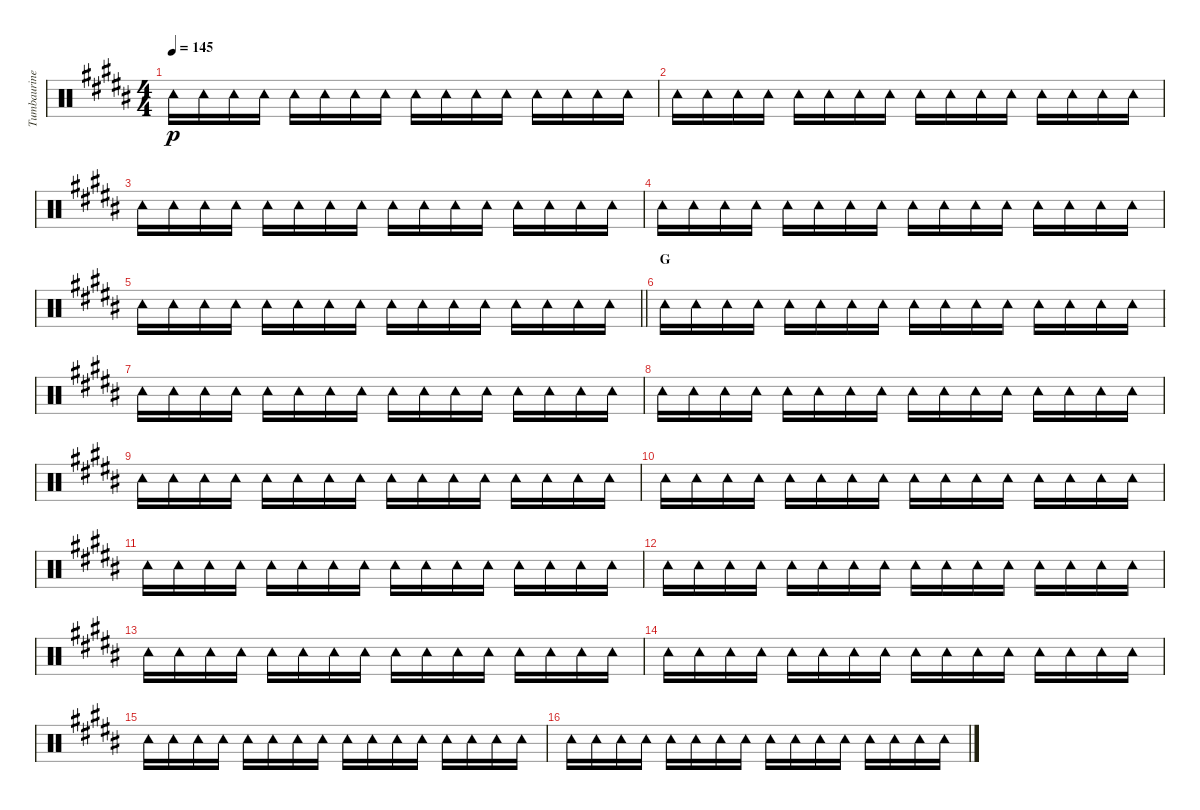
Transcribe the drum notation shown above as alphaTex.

\track ("Tumbaurine" "Tumbaurine") {instrument percussion}
\staff {score}
\articulation defaults
\ts (4 4)
\tempo 145
\clef neutral
\ks b "Tambourine (hit)".16{dy p} "Tambourine (hit)".16 "Tambourine (hit)".16 "Tambourine (hit)".16 "Tambourine (hit)".16 "Tambourine (hit)".16 "Tambourine (hit)".16 "Tambourine (hit)".16 "Tambourine (hit)".16 "Tambourine (hit)".16 "Tambourine (hit)".16 "Tambourine (hit)".16 "Tambourine (hit)".16 "Tambourine (hit)".16 "Tambourine (hit)".16 "Tambourine (hit)".16
|
"Tambourine (hit)".16 "Tambourine (hit)".16 "Tambourine (hit)".16 "Tambourine (hit)".16 "Tambourine (hit)".16 "Tambourine (hit)".16 "Tambourine (hit)".16 "Tambourine (hit)".16 "Tambourine (hit)".16 "Tambourine (hit)".16 "Tambourine (hit)".16 "Tambourine (hit)".16 "Tambourine (hit)".16 "Tambourine (hit)".16 "Tambourine (hit)".16 "Tambourine (hit)".16 |
"Tambourine (hit)".16 "Tambourine (hit)".16 "Tambourine (hit)".16 "Tambourine (hit)".16 "Tambourine (hit)".16 "Tambourine (hit)".16 "Tambourine (hit)".16 "Tambourine (hit)".16 "Tambourine (hit)".16 "Tambourine (hit)".16 "Tambourine (hit)".16 "Tambourine (hit)".16 "Tambourine (hit)".16 "Tambourine (hit)".16 "Tambourine (hit)".16 "Tambourine (hit)".16 |
"Tambourine (hit)".16 "Tambourine (hit)".16 "Tambourine (hit)".16 "Tambourine (hit)".16 "Tambourine (hit)".16 "Tambourine (hit)".16 "Tambourine (hit)".16 "Tambourine (hit)".16 "Tambourine (hit)".16 "Tambourine (hit)".16 "Tambourine (hit)".16 "Tambourine (hit)".16 "Tambourine (hit)".16 "Tambourine (hit)".16 "Tambourine (hit)".16 "Tambourine (hit)".16 |
\barLineRight lightlight "Tambourine (hit)".16 "Tambourine (hit)".16 "Tambourine (hit)".16 "Tambourine (hit)".16 "Tambourine (hit)".16 "Tambourine (hit)".16 "Tambourine (hit)".16 "Tambourine (hit)".16 "Tambourine (hit)".16 "Tambourine (hit)".16 "Tambourine (hit)".16 "Tambourine (hit)".16 "Tambourine (hit)".16 "Tambourine (hit)".16 "Tambourine (hit)".16 "Tambourine (hit)".16
|
\section ("" "G")
"Tambourine (hit)".16 "Tambourine (hit)".16 "Tambourine (hit)".16 "Tambourine (hit)".16 "Tambourine (hit)".16 "Tambourine (hit)".16 "Tambourine (hit)".16 "Tambourine (hit)".16 "Tambourine (hit)".16 "Tambourine (hit)".16 "Tambourine (hit)".16 "Tambourine (hit)".16 "Tambourine (hit)".16 "Tambourine (hit)".16 "Tambourine (hit)".16 "Tambourine (hit)".16 |
"Tambourine (hit)".16 "Tambourine (hit)".16 "Tambourine (hit)".16 "Tambourine (hit)".16 "Tambourine (hit)".16 "Tambourine (hit)".16 "Tambourine (hit)".16 "Tambourine (hit)".16 "Tambourine (hit)".16 "Tambourine (hit)".16 "Tambourine (hit)".16 "Tambourine (hit)".16 "Tambourine (hit)".16 "Tambourine (hit)".16 "Tambourine (hit)".16 "Tambourine (hit)".16 |
"Tambourine (hit)".16 "Tambourine (hit)".16 "Tambourine (hit)".16 "Tambourine (hit)".16 "Tambourine (hit)".16 "Tambourine (hit)".16 "Tambourine (hit)".16 "Tambourine (hit)".16 "Tambourine (hit)".16 "Tambourine (hit)".16 "Tambourine (hit)".16 "Tambourine (hit)".16 "Tambourine (hit)".16 "Tambourine (hit)".16 "Tambourine (hit)".16 "Tambourine (hit)".16 |
"Tambourine (hit)".16 "Tambourine (hit)".16 "Tambourine (hit)".16 "Tambourine (hit)".16 "Tambourine (hit)".16 "Tambourine (hit)".16 "Tambourine (hit)".16 "Tambourine (hit)".16 "Tambourine (hit)".16 "Tambourine (hit)".16 "Tambourine (hit)".16 "Tambourine (hit)".16 "Tambourine (hit)".16 "Tambourine (hit)".16 "Tambourine (hit)".16 "Tambourine (hit)".16 |
"Tambourine (hit)".16 "Tambourine (hit)".16 "Tambourine (hit)".16 "Tambourine (hit)".16 "Tambourine (hit)".16 "Tambourine (hit)".16 "Tambourine (hit)".16 "Tambourine (hit)".16 "Tambourine (hit)".16 "Tambourine (hit)".16 "Tambourine (hit)".16 "Tambourine (hit)".16 "Tambourine (hit)".16 "Tambourine (hit)".16 "Tambourine (hit)".16 "Tambourine (hit)".16 |
"Tambourine (hit)".16 "Tambourine (hit)".16 "Tambourine (hit)".16 "Tambourine (hit)".16 "Tambourine (hit)".16 "Tambourine (hit)".16 "Tambourine (hit)".16 "Tambourine (hit)".16 "Tambourine (hit)".16 "Tambourine (hit)".16 "Tambourine (hit)".16 "Tambourine (hit)".16 "Tambourine (hit)".16 "Tambourine (hit)".16 "Tambourine (hit)".16 "Tambourine (hit)".16 |
"Tambourine (hit)".16 "Tambourine (hit)".16 "Tambourine (hit)".16 "Tambourine (hit)".16 "Tambourine (hit)".16 "Tambourine (hit)".16 "Tambourine (hit)".16 "Tambourine (hit)".16 "Tambourine (hit)".16 "Tambourine (hit)".16 "Tambourine (hit)".16 "Tambourine (hit)".16 "Tambourine (hit)".16 "Tambourine (hit)".16 "Tambourine (hit)".16 "Tambourine (hit)".16 |
"Tambourine (hit)".16 "Tambourine (hit)".16 "Tambourine (hit)".16 "Tambourine (hit)".16 "Tambourine (hit)".16 "Tambourine (hit)".16 "Tambourine (hit)".16 "Tambourine (hit)".16 "Tambourine (hit)".16 "Tambourine (hit)".16 "Tambourine (hit)".16 "Tambourine (hit)".16 "Tambourine (hit)".16 "Tambourine (hit)".16 "Tambourine (hit)".16 "Tambourine (hit)".16 |
"Tambourine (hit)".16 "Tambourine (hit)".16 "Tambourine (hit)".16 "Tambourine (hit)".16 "Tambourine (hit)".16 "Tambourine (hit)".16 "Tambourine (hit)".16 "Tambourine (hit)".16 "Tambourine (hit)".16 "Tambourine (hit)".16 "Tambourine (hit)".16 "Tambourine (hit)".16 "Tambourine (hit)".16 "Tambourine (hit)".16 "Tambourine (hit)".16 "Tambourine (hit)".16 |
"Tambourine (hit)".16 "Tambourine (hit)".16 "Tambourine (hit)".16 "Tambourine (hit)".16 "Tambourine (hit)".16 "Tambourine (hit)".16 "Tambourine (hit)".16 "Tambourine (hit)".16 "Tambourine (hit)".16 "Tambourine (hit)".16 "Tambourine (hit)".16 "Tambourine (hit)".16 "Tambourine (hit)".16 "Tambourine (hit)".16 "Tambourine (hit)".16 "Tambourine (hit)".16 |
"Tambourine (hit)".16 "Tambourine (hit)".16 "Tambourine (hit)".16 "Tambourine (hit)".16 "Tambourine (hit)".16 "Tambourine (hit)".16 "Tambourine (hit)".16 "Tambourine (hit)".16 "Tambourine (hit)".16 "Tambourine (hit)".16 "Tambourine (hit)".16 "Tambourine (hit)".16 "Tambourine (hit)".16 "Tambourine (hit)".16 "Tambourine (hit)".16 "Tambourine (hit)".16
